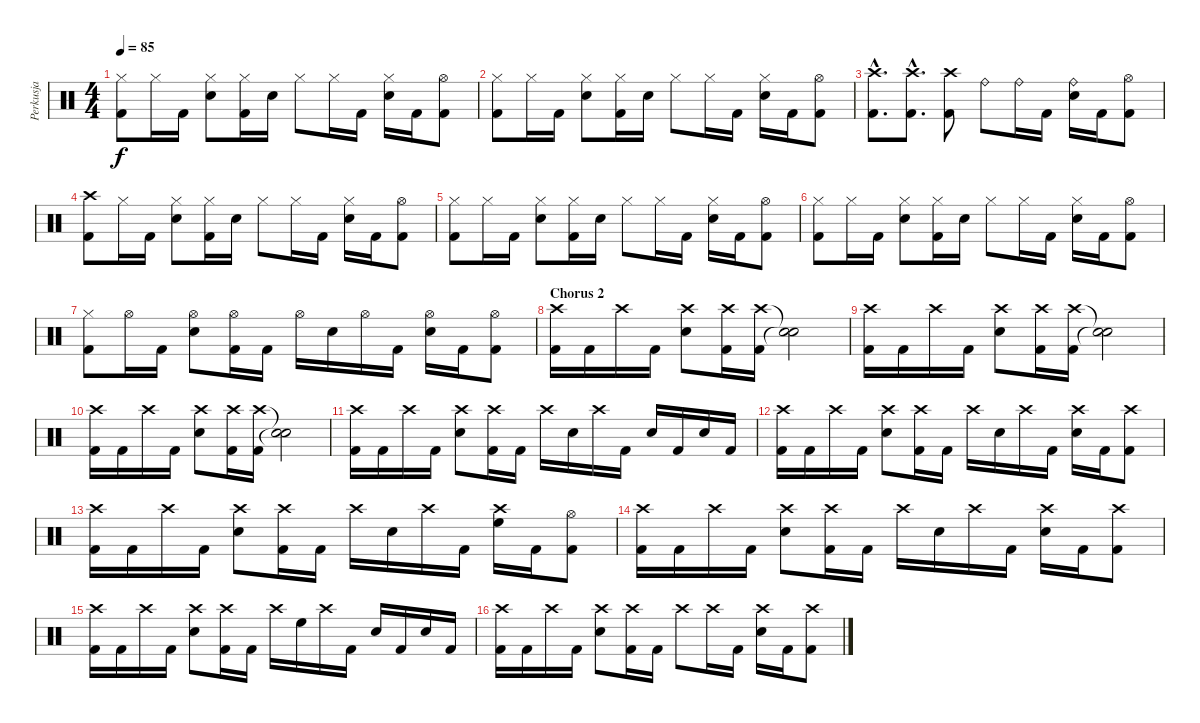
\track ("Perkusja" "Perkusja") {instrument percussion}
\staff {score}
\articulation defaults
\ts (4 4)
\tempo 85
\clef neutral
\ks c
("Hi-Hat (closed)" "Kick (hit) 2").8{dy f} "Hi-Hat (closed)".16 "Kick (hit) 2".16 ("Hi-Hat (closed)" "Snare (hit) 2").8 ("Hi-Hat (closed)" "Kick (hit) 2").16 "Snare (hit) 2".16 "Hi-Hat (closed)".8 "Hi-Hat (closed)".16 "Kick (hit) 2".16 ("Hi-Hat (closed)" "Snare (hit) 2").16 "Kick (hit) 2".16 ("Hi-Hat (open)" "Kick (hit) 2").8 |
("Hi-Hat (closed)" "Kick (hit) 2").8 "Hi-Hat (closed)".16 "Kick (hit) 2".16 ("Hi-Hat (closed)" "Snare (hit) 2").8 ("Hi-Hat (closed)" "Kick (hit) 2").16 "Snare (hit) 2".16 "Hi-Hat (closed)".8 "Hi-Hat (closed)".16 "Kick (hit) 2".16 ("Hi-Hat (closed)" "Snare (hit) 2").16 "Kick (hit) 2".16 ("Hi-Hat (open)" "Kick (hit) 2").8 |
("Crash high (hit)"{hac} "Kick (hit) 2"{hac}).8{d} ("Crash high (hit)"{hac} "Kick (hit) 2"{hac}).8{d} ("Crash high (hit)" "Kick (hit) 2").8 "Ride (bell)".8 "Ride (bell)".16 "Kick (hit) 2".16 ("Ride (bell)" "Snare (hit) 2").16 "Kick (hit) 2".16 ("Hi-Hat (open)" "Kick (hit) 2").8 |
("Crash high (hit)" "Kick (hit) 2").8 "Hi-Hat (closed)".16 "Kick (hit) 2".16 ("Hi-Hat (closed)" "Snare (hit) 2").8 ("Hi-Hat (closed)" "Kick (hit) 2").16 "Snare (hit) 2".16 "Hi-Hat (closed)".8 "Hi-Hat (closed)".16 "Kick (hit) 2".16 ("Hi-Hat (closed)" "Snare (hit) 2").16 "Kick (hit) 2".16 ("Hi-Hat (open)" "Kick (hit) 2").8 |
("Hi-Hat (closed)" "Kick (hit) 2").8 "Hi-Hat (closed)".16 "Kick (hit) 2".16 ("Hi-Hat (closed)" "Snare (hit) 2").8 ("Hi-Hat (closed)" "Kick (hit) 2").16 "Snare (hit) 2".16 "Hi-Hat (closed)".8 "Hi-Hat (closed)".16 "Kick (hit) 2".16 ("Hi-Hat (closed)" "Snare (hit) 2").16 "Kick (hit) 2".16 ("Hi-Hat (open)" "Kick (hit) 2").8 |
("Hi-Hat (closed)" "Kick (hit) 2").8 "Hi-Hat (closed)".16 "Kick (hit) 2".16 ("Hi-Hat (closed)" "Snare (hit) 2").8 ("Hi-Hat (closed)" "Kick (hit) 2").16 "Snare (hit) 2".16 "Hi-Hat (closed)".8 "Hi-Hat (closed)".16 "Kick (hit) 2".16 ("Hi-Hat (closed)" "Snare (hit) 2").16 "Kick (hit) 2".16 ("Hi-Hat (open)" "Kick (hit) 2").8 |
("Hi-Hat (closed)" "Kick (hit) 2").8 "Hi-Hat (open)".16 "Kick (hit) 2".16 ("Hi-Hat (open)" "Snare (hit) 2").8 ("Hi-Hat (open)" "Kick (hit) 2").16 "Kick (hit) 2".16 "Hi-Hat (open)".16 "Snare (hit) 2".16 "Hi-Hat (open)".16 "Kick (hit) 2".16 ("Hi-Hat (open)" "Snare (hit) 2").16 "Kick (hit) 2".16 ("Hi-Hat (open)" "Kick (hit) 2").8 |
\section ("" "Chorus 2")
("Crash high (hit)" "Kick (hit) 2").16 "Kick (hit) 2".16 "Crash high (hit)".16 "Kick (hit) 2".16 ("Crash high (hit)" "Snare (hit) 2").8 ("Crash high (hit)" "Kick (hit) 2").16 ("Crash high (hit)" "Kick (hit) 2").16 ("Snare (hit)"{t} "Snare (hit)"{t}).2 |
("Crash high (hit)" "Kick (hit) 2").16 "Kick (hit) 2".16 "Crash high (hit)".16 "Kick (hit) 2".16 ("Crash high (hit)" "Snare (hit) 2").8 ("Crash high (hit)" "Kick (hit) 2").16 ("Crash high (hit)" "Kick (hit) 2").16 ("Snare (hit)"{t} "Snare (hit)"{t}).2 |
("Crash high (hit)" "Kick (hit) 2").16 "Kick (hit) 2".16 "Crash high (hit)".16 "Kick (hit) 2".16 ("Crash high (hit)" "Snare (hit) 2").8 ("Crash high (hit)" "Kick (hit) 2").16 ("Crash high (hit)" "Kick (hit) 2").16 ("Snare (hit)"{t} "Snare (hit)"{t}).2 |
("Crash high (hit)" "Kick (hit) 2").16 "Kick (hit) 2".16 "Crash high (hit)".16 "Kick (hit) 2".16 ("Crash high (hit)" "Snare (hit) 2").8 ("Crash high (hit)" "Kick (hit) 2").16 "Kick (hit) 2".16 "Crash high (hit)".16 "Snare (hit) 2".16 "Crash high (hit)".16 "Kick (hit) 2".16 "Snare (hit) 2".16 "Kick (hit) 2".16 "Snare (hit) 2".16 "Kick (hit) 2".16 |
("Crash high (hit)" "Kick (hit) 2").16 "Kick (hit) 2".16 "Crash high (hit)".16 "Kick (hit) 2".16 ("Crash high (hit)" "Snare (hit) 2").8 ("Crash high (hit)" "Kick (hit) 2").16 "Kick (hit) 2".16 "Crash high (hit)".16 "Snare (hit) 2".16 "Crash high (hit)".16 "Kick (hit) 2".16 ("Crash high (hit)" "Snare (hit) 2").16 "Kick (hit) 2".16 ("Crash high (hit)" "Kick (hit) 2").8 |
("Crash high (hit)" "Kick (hit) 2").16 "Kick (hit) 2".16 "Crash high (hit)".16 "Kick (hit) 2".16 ("Crash high (hit)" "Snare (hit) 2").8 ("Crash high (hit)" "Kick (hit) 2").16 "Kick (hit) 2".16 "Crash high (hit)".16 "Snare (hit) 2".16 "Crash high (hit)".16 "Kick (hit) 2".16 ("Crash high (hit)" "High Floor Tom (hit)").16 "Kick (hit) 2".16 ("Hi-Hat (open)" "Kick (hit) 2").8 |
("Crash high (hit)" "Kick (hit) 2").16 "Kick (hit) 2".16 "Crash high (hit)".16 "Kick (hit) 2".16 ("Crash high (hit)" "Snare (hit) 2").8 ("Crash high (hit)" "Kick (hit) 2").16 "Kick (hit) 2".16 "Crash high (hit)".16 "Snare (hit) 2".16 "Crash high (hit)".16 "Kick (hit) 2".16 ("Crash high (hit)" "Snare (hit) 2").16 "Kick (hit) 2".16 ("Crash high (hit)" "Kick (hit) 2").8 |
("Crash high (hit)" "Kick (hit) 2").16 "Kick (hit) 2".16 "Crash high (hit)".16 "Kick (hit) 2".16 ("Crash high (hit)" "Snare (hit) 2").8 ("Crash high (hit)" "Kick (hit) 2").16 "Kick (hit) 2".16 "Crash high (hit)".16 "High Floor Tom (hit)".16 "Crash high (hit)".16 "Kick (hit) 2".16 "Snare (hit) 2".16 "Kick (hit) 2".16 "Snare (hit) 2".16 "Kick (hit) 2".16 |
("Crash high (hit)" "Kick (hit) 2").16 "Kick (hit) 2".16 "Crash high (hit)".16 "Kick (hit) 2".16 ("Crash high (hit)" "Snare (hit) 2").8 ("Crash high (hit)" "Kick (hit) 2").16 "Kick (hit) 2".16 "Crash high (hit)".8 "Crash high (hit)".16 "Kick (hit) 2".16 ("Crash high (hit)" "Snare (hit) 2").16 "Kick (hit) 2".16 ("Crash high (hit)" "Kick (hit) 2").8
